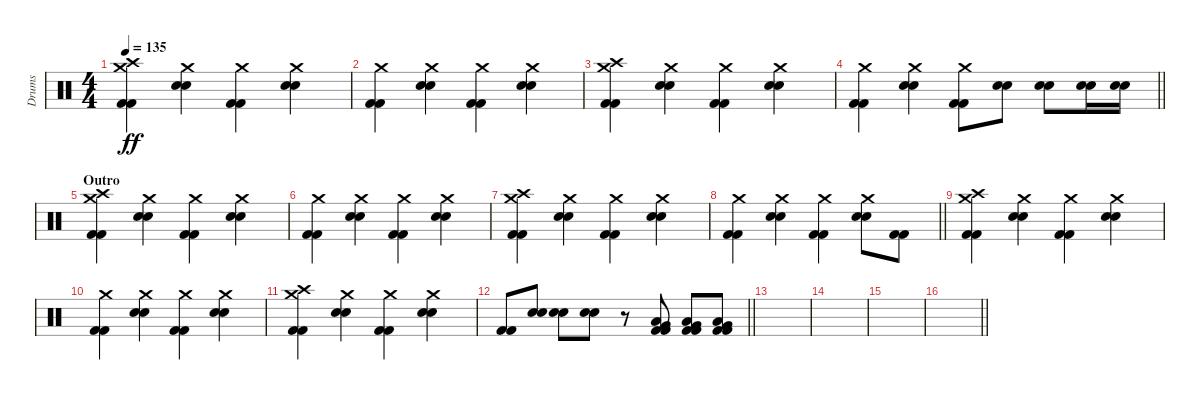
\track ("Drums" "Drums") {instrument percussion}
\staff {score}
\articulation defaults
\ts (4 4)
\tempo 135
\clef neutral
\ks c
("Crash high (hit)" "Crash medium (hit)" "Kick (hit) 2" "Kick (hit) 2").4{dy ff} ("Crash medium (hit)" "Electric Snare (hit)" "Electric Snare (hit)").4 ("Crash medium (hit)" "Kick (hit) 2" "Kick (hit) 2").4 ("Crash medium (hit)" "Electric Snare (hit)" "Electric Snare (hit)").4 |
("Crash medium (hit)" "Kick (hit) 2" "Kick (hit) 2").4 ("Crash medium (hit)" "Electric Snare (hit)" "Electric Snare (hit)").4 ("Crash medium (hit)" "Kick (hit) 2" "Kick (hit) 2").4 ("Crash medium (hit)" "Electric Snare (hit)" "Electric Snare (hit)").4 |
("Crash high (hit)" "Crash medium (hit)" "Kick (hit) 2" "Kick (hit) 2").4 ("Crash medium (hit)" "Electric Snare (hit)" "Electric Snare (hit)").4 ("Crash medium (hit)" "Kick (hit) 2" "Kick (hit) 2").4 ("Crash medium (hit)" "Electric Snare (hit)" "Electric Snare (hit)").4 |
\barLineRight lightlight
("Crash medium (hit)" "Kick (hit) 2" "Kick (hit) 2").4 ("Crash medium (hit)" "Electric Snare (hit)" "Electric Snare (hit)").4 ("Crash medium (hit)" "Kick (hit) 2" "Kick (hit) 2").8 ("Electric Snare (hit)" "Electric Snare (hit)").8 ("Electric Snare (hit)" "Electric Snare (hit)").8 ("Electric Snare (hit)" "Electric Snare (hit)").16 ("Electric Snare (hit)" "Electric Snare (hit)").16 |
\section ("" "Outro")
("Crash high (hit)" "Crash medium (hit)" "Kick (hit) 2" "Kick (hit) 2").4 ("Crash medium (hit)" "Electric Snare (hit)" "Electric Snare (hit)").4 ("Crash medium (hit)" "Kick (hit) 2" "Kick (hit) 2").4 ("Crash medium (hit)" "Electric Snare (hit)" "Electric Snare (hit)").4 |
("Crash medium (hit)" "Kick (hit) 2" "Kick (hit) 2").4 ("Crash medium (hit)" "Electric Snare (hit)" "Electric Snare (hit)").4 ("Crash medium (hit)" "Kick (hit) 2" "Kick (hit) 2").4 ("Crash medium (hit)" "Electric Snare (hit)" "Electric Snare (hit)").4 |
("Crash high (hit)" "Crash medium (hit)" "Kick (hit) 2" "Kick (hit) 2").4 ("Crash medium (hit)" "Electric Snare (hit)" "Electric Snare (hit)").4 ("Crash medium (hit)" "Kick (hit) 2" "Kick (hit) 2").4 ("Crash medium (hit)" "Electric Snare (hit)" "Electric Snare (hit)").4 |
\barLineRight lightlight
("Crash medium (hit)" "Kick (hit) 2" "Kick (hit) 2").4 ("Crash medium (hit)" "Electric Snare (hit)" "Electric Snare (hit)").4 ("Crash medium (hit)" "Kick (hit) 2" "Kick (hit) 2").4 ("Crash medium (hit)" "Electric Snare (hit)" "Electric Snare (hit)").8 ("Kick (hit) 2" "Kick (hit) 2").8 |
("Crash high (hit)" "Crash medium (hit)" "Kick (hit) 2" "Kick (hit) 2").4 ("Crash medium (hit)" "Electric Snare (hit)" "Electric Snare (hit)").4 ("Crash medium (hit)" "Kick (hit) 2" "Kick (hit) 2").4 ("Crash medium (hit)" "Electric Snare (hit)" "Electric Snare (hit)").4 |
("Crash medium (hit)" "Kick (hit) 2" "Kick (hit) 2").4 ("Crash medium (hit)" "Electric Snare (hit)" "Electric Snare (hit)").4 ("Crash medium (hit)" "Kick (hit) 2" "Kick (hit) 2").4 ("Crash medium (hit)" "Electric Snare (hit)" "Electric Snare (hit)").4 |
("Crash high (hit)" "Crash medium (hit)" "Kick (hit) 2" "Kick (hit) 2").4 ("Crash medium (hit)" "Electric Snare (hit)" "Electric Snare (hit)").4 ("Crash medium (hit)" "Kick (hit) 2" "Kick (hit) 2").4 ("Crash medium (hit)" "Electric Snare (hit)" "Electric Snare (hit)").4 |
\barLineRight lightlight
("Kick (hit) 2" "Kick (hit) 2").8 ("Electric Snare (hit)" "Electric Snare (hit)").8 ("Electric Snare (hit)" "Electric Snare (hit)").8 ("Electric Snare (hit)" "Electric Snare (hit)").8 r.8 ("Low Floor Tom (hit)" "Very Low Tom (hit)" "Kick (hit) 2" "Kick (hit) 2").8 ("Low Floor Tom (hit)" "Very Low Tom (hit)" "Kick (hit) 2" "Kick (hit) 2").8 ("Low Floor Tom (hit)" "Very Low Tom (hit)" "Kick (hit) 2" "Kick (hit) 2").8 |
|
|
|
\barLineRight lightlight
